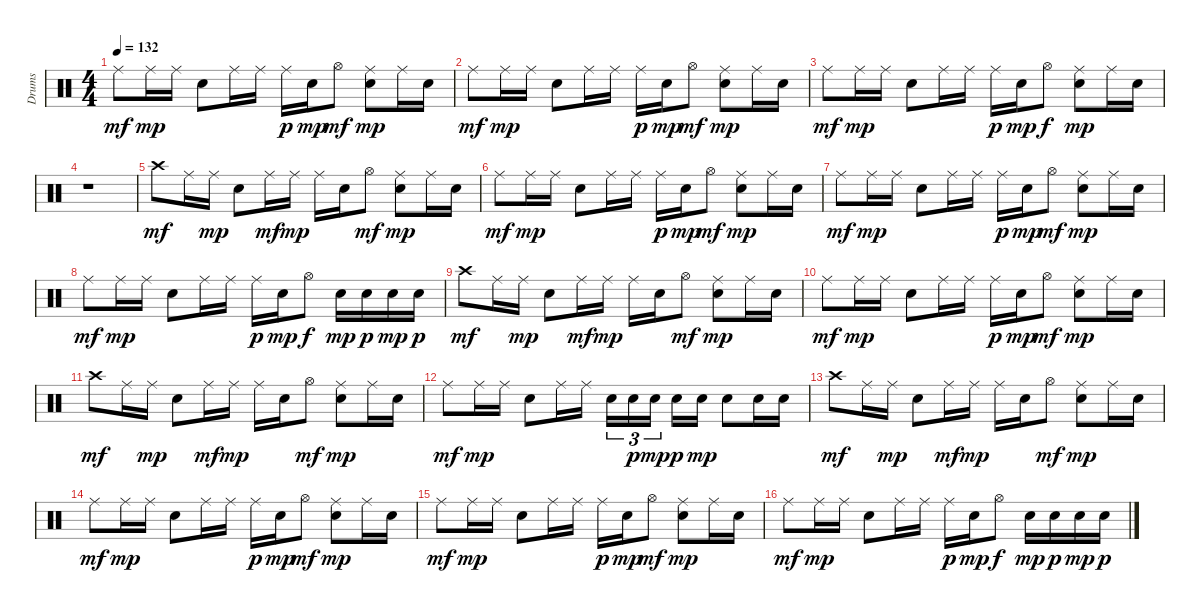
\track ("Drums" "Drums") {instrument percussion}
\staff {score}
\articulation defaults
\ts (4 4)
\tempo 132
\clef neutral
\ks c "Ride (middle)".8{dy mf} "Ride (middle)".16{dy mp} "Ride (middle)".16 "Electric Snare (hit)".8 "Ride (middle)".16 "Ride (middle)".16 "Ride (middle)".16{dy p} "Electric Snare (hit)".16{dy mp} "Hi-Hat (open)".8{dy mf}
("Ride (middle)" "Electric Snare (hit)").8{dy mp} "Ride (middle)".16 "Electric Snare (hit)".16 |
"Ride (middle)".8{dy mf} "Ride (middle)".16{dy mp} "Ride (middle)".16 "Electric Snare (hit)".8 "Ride (middle)".16 "Ride (middle)".16 "Ride (middle)".16{dy p} "Electric Snare (hit)".16{dy mp} "Hi-Hat (open)".8{dy mf} ("Electric Snare (hit)" "Ride (middle)").8{dy mp} "Ride (middle)".16 "Electric Snare (hit)".16 |
"Ride (middle)".8{dy mf} "Ride (middle)".16{dy mp} "Ride (middle)".16 "Electric Snare (hit)".8 "Ride (middle)".16 "Ride (middle)".16 "Ride (middle)".16{dy p} "Electric Snare (hit)".16{dy mp} "Hi-Hat (open)".8{dy f} ("Electric Snare (hit)" "Ride (middle)").8{dy mp} "Ride (middle)".16 "Electric Snare (hit)".16 |
r.1 |
"Crash high (hit)".8{dy mf} "Ride (middle)".16 "Ride (middle)".16{dy mp} "Electric Snare (hit)".8 "Ride (middle)".16{dy mf} "Ride (middle)".16{dy mp} "Ride (middle)".16 "Electric Snare (hit)".16 "Hi-Hat (open)".8{dy mf} ("Ride (middle)" "Electric Snare (hit)").8{dy mp} "Ride (middle)".16 "Electric Snare (hit)".16 |
"Ride (middle)".8{dy mf} "Ride (middle)".16{dy mp} "Ride (middle)".16 "Electric Snare (hit)".8 "Ride (middle)".16 "Ride (middle)".16 "Ride (middle)".16{dy p} "Electric Snare (hit)".16{dy mp} "Hi-Hat (open)".8{dy mf} ("Electric Snare (hit)" "Ride (middle)").8{dy mp} "Ride (middle)".16 "Electric Snare (hit)".16 |
"Ride (middle)".8{dy mf} "Ride (middle)".16{dy mp} "Ride (middle)".16 "Electric Snare (hit)".8 "Ride (middle)".16 "Ride (middle)".16 "Ride (middle)".16{dy p} "Electric Snare (hit)".16{dy mp} "Hi-Hat (open)".8{dy mf} ("Electric Snare (hit)" "Ride (middle)").8{dy mp} "Ride (middle)".16 "Electric Snare (hit)".16 |
"Ride (middle)".8{dy mf} "Ride (middle)".16{dy mp} "Ride (middle)".16 "Electric Snare (hit)".8 "Ride (middle)".16 "Ride (middle)".16 "Ride (middle)".16{dy p} "Electric Snare (hit)".16{dy mp} "Hi-Hat (open)".8{dy f} "Electric Snare (hit)".16{dy mp} "Electric Snare (hit)".16{dy p} "Electric Snare (hit)".16{dy mp} "Electric Snare (hit)".16{dy p} |
"Crash high (hit)".8{dy mf} "Ride (middle)".16 "Ride (middle)".16{dy mp} "Electric Snare (hit)".8 "Ride (middle)".16{dy mf} "Ride (middle)".16{dy mp} "Ride (middle)".16 "Electric Snare (hit)".16 "Hi-Hat (open)".8{dy mf} ("Electric Snare (hit)" "Ride (middle)").8{dy mp} "Ride (middle)".16 "Electric Snare (hit)".16 |
"Ride (middle)".8{dy mf} "Ride (middle)".16{dy mp} "Ride (middle)".16 "Electric Snare (hit)".8 "Ride (middle)".16 "Ride (middle)".16 "Ride (middle)".16{dy p} "Electric Snare (hit)".16{dy mp} "Hi-Hat (open)".8{dy mf} ("Electric Snare (hit)" "Ride (middle)").8{dy mp} "Ride (middle)".16 "Electric Snare (hit)".16 |
"Crash high (hit)".8{dy mf} "Ride (middle)".16 "Ride (middle)".16{dy mp} "Electric Snare (hit)".8 "Ride (middle)".16{dy mf} "Ride (middle)".16{dy mp} "Ride (middle)".16 "Electric Snare (hit)".16 "Hi-Hat (open)".8{dy mf} ("Ride (middle)" "Electric Snare (hit)").8{dy mp} "Ride (middle)".16 "Electric Snare (hit)".16 |
"Ride (middle)".8{dy mf} "Ride (middle)".16{dy mp} "Ride (middle)".16 "Electric Snare (hit)".8 "Ride (middle)".16 "Ride (middle)".16 "Electric Snare (hit)".16{tu (3 2)} "Electric Snare (hit)".16{tu (3 2) dy p} "Electric Snare (hit)".16{tu (3 2) dy mp} "Electric Snare (hit)".16{dy p} "Electric Snare (hit)".16{dy mp} "Electric Snare (hit)".8 "Electric Snare (hit)".16 "Electric Snare (hit)".16 |
"Crash high (hit)".8{dy mf} "Ride (middle)".16 "Ride (middle)".16{dy mp} "Electric Snare (hit)".8 "Ride (middle)".16{dy mf} "Ride (middle)".16{dy mp} "Ride (middle)".16 "Electric Snare (hit)".16 "Hi-Hat (open)".8{dy mf} ("Ride (middle)" "Electric Snare (hit)").8{dy mp} "Ride (middle)".16 "Electric Snare (hit)".16 |
"Ride (middle)".8{dy mf} "Ride (middle)".16{dy mp} "Ride (middle)".16 "Electric Snare (hit)".8 "Ride (middle)".16 "Ride (middle)".16 "Ride (middle)".16{dy p} "Electric Snare (hit)".16{dy mp} "Hi-Hat (open)".8{dy mf} ("Electric Snare (hit)" "Ride (middle)").8{dy mp} "Ride (middle)".16 "Electric Snare (hit)".16 |
"Ride (middle)".8{dy mf} "Ride (middle)".16{dy mp} "Ride (middle)".16 "Electric Snare (hit)".8 "Ride (middle)".16 "Ride (middle)".16 "Ride (middle)".16{dy p} "Electric Snare (hit)".16{dy mp} "Hi-Hat (open)".8{dy mf} ("Electric Snare (hit)" "Ride (middle)").8{dy mp} "Ride (middle)".16 "Electric Snare (hit)".16 |
"Ride (middle)".8{dy mf} "Ride (middle)".16{dy mp} "Ride (middle)".16 "Electric Snare (hit)".8 "Ride (middle)".16 "Ride (middle)".16 "Ride (middle)".16{dy p} "Electric Snare (hit)".16{dy mp} "Hi-Hat (open)".8{dy f} "Electric Snare (hit)".16{dy mp} "Electric Snare (hit)".16{dy p} "Electric Snare (hit)".16{dy mp} "Electric Snare (hit)".16{dy p}
